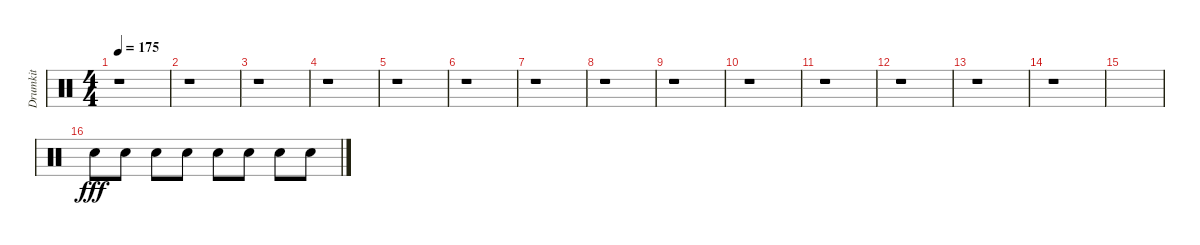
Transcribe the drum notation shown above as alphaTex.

\track ("Drumkit" "Drumkit") {instrument percussion}
\staff {score}
\articulation defaults
\ts (4 4)
\tempo 175
\clef neutral
\ks c
r.1{dy fff} |
r.1 |
r.1 |
r.1 |
r.1 |
r.1 |
r.1 |
r.1 |
r.1 |
r.1 |
r.1 |
r.1 |
r.1 |
r.1 |
|
"Snare (hit) 2".8 "Snare (hit) 2".8 "Snare (hit) 2".8 "Snare (hit) 2".8 "Snare (hit) 2".8 "Snare (hit) 2".8 "Snare (hit) 2".8 "Snare (hit) 2".8
